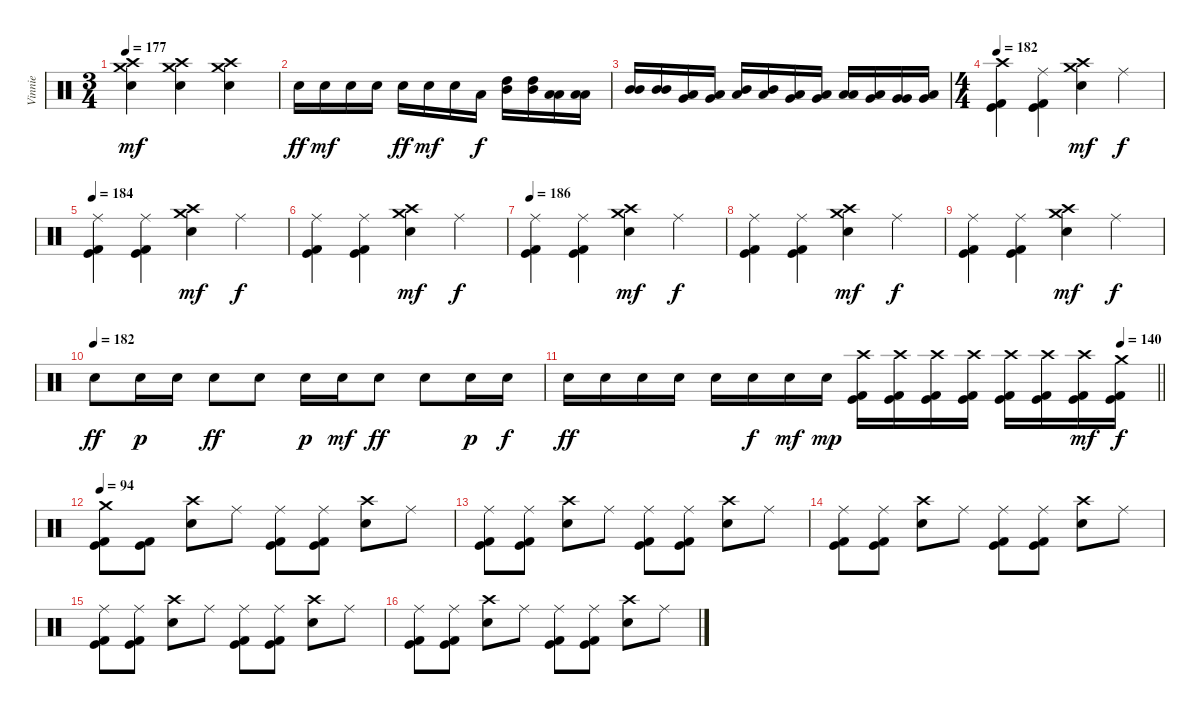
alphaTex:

\track ("Vinnie" "Vinnie") {instrument percussion}
\staff {score}
\articulation defaults
\ts (3 4)
\tempo 177
\clef neutral
\ks c
("Crash high (hit)" "Crash medium (hit)" "Electric Snare (hit)").4{dy mf} ("Crash high (hit)" "Crash medium (hit)" "Electric Snare (hit)").4 ("Crash high (hit)" "Crash medium (hit)" "Electric Snare (hit)").4 |
"Electric Snare (hit)".16{dy ff} "Electric Snare (hit)".16{dy mf} "Electric Snare (hit)".16 "Electric Snare (hit)".16 "Electric Snare (hit)".16{dy ff} "Electric Snare (hit)".16{dy mf} "Electric Snare (hit)".16 "Low Tom (hit)".16{dy f} ("High Tom (hit)" "Mid Tom (hit)").16 ("High Tom (hit)" "Mid Tom (hit)").16 ("Low Tom (hit)" "Low Tom (hit)").16 ("Low Tom (hit)" "Low Tom (hit)").16 |
("Mid Tom (hit)" "Mid Tom (hit)").16 ("Mid Tom (hit)" "Mid Tom (hit)").16 ("Low Tom (hit)" "Very Low Tom (hit)").16 ("Low Tom (hit)" "Very Low Tom (hit)").16 ("Mid Tom (hit)" "Low Tom (hit)").16 ("Mid Tom (hit)" "Low Tom (hit)").16 ("Very Low Tom (hit)" "Low Floor Tom (hit)").16 ("Very Low Tom (hit)" "Low Floor Tom (hit)").16 ("Low Tom (hit)" "Low Tom (hit)").16 ("Low Tom (hit)" "Very Low Tom (hit)").16 ("Very Low Tom (hit)" "Very Low Tom (hit)").16 ("Very Low Tom (hit)" "Low Floor Tom (hit)").16 |
\ts (4 4)
\tempo 182
("Crash high (hit)" "Kick (hit)" "Kick (hit) 2").4 ("Ride (middle)" "Kick (hit)" "Kick (hit) 2").4 ("Crash high (hit)" "Crash medium (hit)" "Electric Snare (hit)").4{dy mf} "Ride (middle)".4{dy f} |
\tempo 184
("Ride (middle)" "Kick (hit)" "Kick (hit) 2").4 ("Ride (middle)" "Kick (hit)" "Kick (hit) 2").4 ("Crash high (hit)" "Crash medium (hit)" "Electric Snare (hit)").4{dy mf} "Ride (middle)".4{dy f} |
("Ride (middle)" "Kick (hit)" "Kick (hit) 2").4 ("Ride (middle)" "Kick (hit)" "Kick (hit) 2").4 ("Crash high (hit)" "Crash medium (hit)" "Electric Snare (hit)").4{dy mf} "Ride (middle)".4{dy f} |
\tempo 186
("Ride (middle)" "Kick (hit)" "Kick (hit) 2").4 ("Ride (middle)" "Kick (hit)" "Kick (hit) 2").4 ("Crash high (hit)" "Crash medium (hit)" "Electric Snare (hit)").4{dy mf} "Ride (middle)".4{dy f} |
("Ride (middle)" "Kick (hit)" "Kick (hit) 2").4 ("Ride (middle)" "Kick (hit)" "Kick (hit) 2").4 ("Crash high (hit)" "Crash medium (hit)" "Electric Snare (hit)").4{dy mf} "Ride (middle)".4{dy f} |
("Ride (middle)" "Kick (hit)" "Kick (hit) 2").4 ("Ride (middle)" "Kick (hit)" "Kick (hit) 2").4 ("Crash high (hit)" "Crash medium (hit)" "Electric Snare (hit)").4{dy mf} "Ride (middle)".4{dy f} |
\tempo (182)
"Electric Snare (hit)".8{dy ff} "Electric Snare (hit)".16{dy p} "Electric Snare (hit)".16 "Electric Snare (hit)".8{dy ff} "Electric Snare (hit)".8 "Electric Snare (hit)".16{dy p} "Electric Snare (hit)".16{dy mf} "Electric Snare (hit)".8{dy ff} "Electric Snare (hit)".8 "Electric Snare (hit)".16{dy p} "Electric Snare (hit)".16{dy f} |
\tempo (140 0.9375)
\barLineRight lightlight "Electric Snare (hit)".16{dy ff} "Electric Snare (hit)".16 "Electric Snare (hit)".16 "Electric Snare (hit)".16 "Electric Snare (hit)".16 "Electric Snare (hit)".16{dy f} "Electric Snare (hit)".16{dy mf} "Electric Snare (hit)".16{dy mp}
("Crash high (hit)" "Kick (hit)" "Kick (hit) 2").16 ("Crash high (hit)" "Kick (hit)" "Kick (hit) 2").16 ("Crash high (hit)" "Kick (hit)" "Kick (hit) 2").16 ("Crash high (hit)" "Kick (hit)" "Kick (hit) 2").16 ("Crash high (hit)" "Kick (hit)" "Kick (hit) 2").16 ("Crash high (hit)" "Kick (hit)" "Kick (hit) 2").16 ("Crash high (hit)" "Kick (hit)" "Kick (hit) 2").16{dy mf} ("Crash medium (hit)" "Kick (hit)" "Kick (hit) 2").16{dy f} |
\tempo 94
("Crash medium (hit)" "Kick (hit)" "Kick (hit) 2").8 ("Kick (hit)" "Kick (hit) 2").8 ("Crash high (hit)" "Electric Snare (hit)").8 "Ride (middle)".8 ("Ride (middle)" "Kick (hit)" "Kick (hit) 2").8 ("Ride (middle)" "Kick (hit)" "Kick (hit) 2").8 ("Crash high (hit)" "Electric Snare (hit)").8 "Ride (middle)".8 |
("Ride (middle)" "Kick (hit)" "Kick (hit) 2").8 ("Ride (middle)" "Kick (hit)" "Kick (hit) 2").8 ("Crash high (hit)" "Electric Snare (hit)").8 "Ride (middle)".8 ("Ride (middle)" "Kick (hit)" "Kick (hit) 2").8 ("Ride (middle)" "Kick (hit)" "Kick (hit) 2").8 ("Crash high (hit)" "Electric Snare (hit)").8 "Ride (middle)".8 |
("Ride (middle)" "Kick (hit)" "Kick (hit) 2").8 ("Ride (middle)" "Kick (hit)" "Kick (hit) 2").8 ("Crash high (hit)" "Electric Snare (hit)").8 "Ride (middle)".8 ("Ride (middle)" "Kick (hit)" "Kick (hit) 2").8 ("Ride (middle)" "Kick (hit)" "Kick (hit) 2").8 ("Crash high (hit)" "Electric Snare (hit)").8 "Ride (middle)".8 |
("Ride (middle)" "Kick (hit)" "Kick (hit) 2").8 ("Ride (middle)" "Kick (hit)" "Kick (hit) 2").8 ("Crash high (hit)" "Electric Snare (hit)").8 "Ride (middle)".8 ("Ride (middle)" "Kick (hit)" "Kick (hit) 2").8 ("Ride (middle)" "Kick (hit)" "Kick (hit) 2").8 ("Crash high (hit)" "Electric Snare (hit)").8 "Ride (middle)".8 |
("Ride (middle)" "Kick (hit)" "Kick (hit) 2").8 ("Ride (middle)" "Kick (hit)" "Kick (hit) 2").8 ("Crash high (hit)" "Electric Snare (hit)").8 "Ride (middle)".8 ("Ride (middle)" "Kick (hit)" "Kick (hit) 2").8 ("Ride (middle)" "Kick (hit)" "Kick (hit) 2").8 ("Crash high (hit)" "Electric Snare (hit)").8 "Ride (middle)".8
